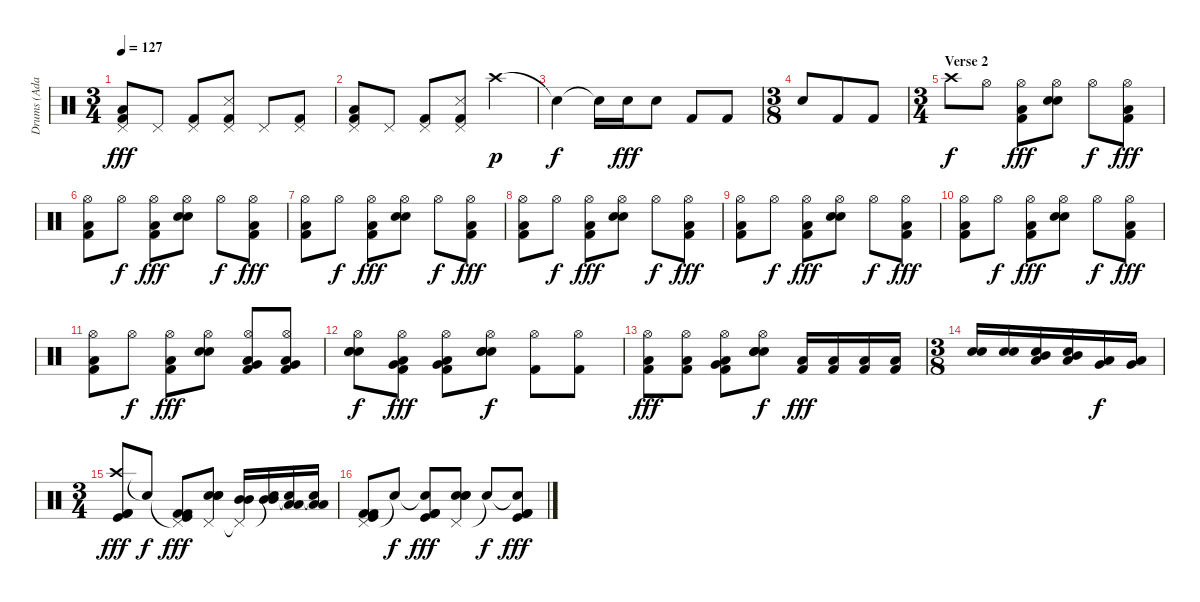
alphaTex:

\track ("Drums (Adam)" "Drums (Ada") {instrument percussion}
\staff {score}
\articulation defaults
\ts (3 4)
\tempo 127
\clef neutral
\ks c
("Pedal Hi-Hat (hit)" "Low Tom (hit)" "Kick (hit) 2").8{dy fff} "Pedal Hi-Hat (hit)".8 ("Pedal Hi-Hat (hit)" "Kick (hit) 2").8 ("Pedal Hi-Hat (hit)" "Snare (side stick) 3" "Kick (hit) 2").8 "Pedal Hi-Hat (hit)".8 ("Pedal Hi-Hat (hit)" "Kick (hit) 2").8 |
("Pedal Hi-Hat (hit)" "Low Tom (hit)" "Kick (hit) 2").8 "Pedal Hi-Hat (hit)".8 ("Pedal Hi-Hat (hit)" "Kick (hit) 2").8 ("Pedal Hi-Hat (hit)" "Snare (side stick) 3" "Kick (hit) 2").8 "Crash high (hit)".4{dy p} |
"Snare (hit)"{t}.4{dy f} "Snare (hit)"{t}.16 "Electric Snare (hit)".16{dy fff} "Electric Snare (hit)".8 "Kick (hit) 2".8 "Kick (hit) 2".8 |
\ts (3 8)
"Electric Snare (hit)".8 "Kick (hit) 2".8 "Kick (hit) 2".8 |
\ts (3 4)
\section ("" "Verse 2")
"Crash high (hit)".8{dy f} "Hi-Hat (open)".8 ("Hi-Hat (open)" "Low Tom (hit)" "Kick (hit) 2").8{dy fff} ("Hi-Hat (open)" "Snare (hit) 2" "Electric Snare (hit)").8 "Hi-Hat (open)".8{dy f} ("Hi-Hat (open)" "Low Tom (hit)" "Kick (hit) 2").8{dy fff} |
("Hi-Hat (open)" "Low Tom (hit)" "Kick (hit) 2").8 "Hi-Hat (open)".8{dy f} ("Hi-Hat (open)" "Low Tom (hit)" "Kick (hit) 2").8{dy fff} ("Hi-Hat (open)" "Snare (hit) 2" "Electric Snare (hit)").8 "Hi-Hat (open)".8{dy f} ("Hi-Hat (open)" "Low Tom (hit)" "Kick (hit) 2").8{dy fff} |
("Hi-Hat (open)" "Low Tom (hit)" "Kick (hit) 2").8 "Hi-Hat (open)".8{dy f} ("Hi-Hat (open)" "Low Tom (hit)" "Kick (hit) 2").8{dy fff} ("Hi-Hat (open)" "Snare (hit) 2" "Electric Snare (hit)").8 "Hi-Hat (open)".8{dy f} ("Hi-Hat (open)" "Low Tom (hit)" "Kick (hit) 2").8{dy fff} |
("Hi-Hat (open)" "Low Tom (hit)" "Kick (hit) 2").8 "Hi-Hat (open)".8{dy f} ("Hi-Hat (open)" "Low Tom (hit)" "Kick (hit) 2").8{dy fff} ("Hi-Hat (open)" "Snare (hit) 2" "Electric Snare (hit)").8 "Hi-Hat (open)".8{dy f} ("Hi-Hat (open)" "Low Tom (hit)" "Kick (hit) 2").8{dy fff} |
("Hi-Hat (open)" "Low Tom (hit)" "Kick (hit) 2").8 "Hi-Hat (open)".8{dy f} ("Hi-Hat (open)" "Low Tom (hit)" "Kick (hit) 2").8{dy fff} ("Hi-Hat (open)" "Snare (hit) 2" "Electric Snare (hit)").8 "Hi-Hat (open)".8{dy f} ("Hi-Hat (open)" "Low Tom (hit)" "Kick (hit) 2").8{dy fff} |
("Hi-Hat (open)" "Low Tom (hit)" "Kick (hit) 2").8 "Hi-Hat (open)".8{dy f} ("Hi-Hat (open)" "Low Tom (hit)" "Kick (hit) 2").8{dy fff} ("Hi-Hat (open)" "Snare (hit) 2" "Electric Snare (hit)").8 "Hi-Hat (open)".8{dy f} ("Hi-Hat (open)" "Low Tom (hit)" "Kick (hit) 2").8{dy fff} |
("Hi-Hat (open)" "Low Tom (hit)" "Kick (hit) 2").8 "Hi-Hat (open)".8{dy f} ("Hi-Hat (open)" "Low Tom (hit)" "Kick (hit) 2").8{dy fff} ("Hi-Hat (open)" "Snare (hit) 2" "Electric Snare (hit)").8 ("Hi-Hat (open)" "Very Low Tom (hit)" "Low Tom (hit)" "Kick (hit) 2").8 ("Hi-Hat (open)" "Very Low Tom (hit)" "Low Tom (hit)" "Kick (hit) 2").8 |
("Hi-Hat (open)" "Electric Snare (hit)" "Electric Snare (hit)" "Snare (hit) 2").8{dy f} ("Hi-Hat (open)" "Very Low Tom (hit)" "Low Tom (hit)" "Kick (hit) 2").8{dy fff} ("Hi-Hat (open)" "Very Low Tom (hit)" "Low Tom (hit)" "Kick (hit) 2").8 ("Hi-Hat (open)" "Electric Snare (hit)" "Electric Snare (hit)" "Snare (hit) 2").8{dy f} ("Hi-Hat (open)" "Kick (hit) 2").8 ("Hi-Hat (open)" "Kick (hit) 2").8 |
("Hi-Hat (open)" "Low Tom (hit)" "Kick (hit) 2").8{dy fff} ("Hi-Hat (open)" "Low Tom (hit)" "Kick (hit) 2").8 ("Hi-Hat (open)" "Very Low Tom (hit)" "Low Tom (hit)" "Kick (hit) 2").8 ("Hi-Hat (open)" "Electric Snare (hit)" "Electric Snare (hit)" "Snare (hit) 2").8{dy f} ("Low Tom (hit)" "Kick (hit) 2").16{dy fff} ("Low Tom (hit)" "Kick (hit) 2").16 ("Low Tom (hit)" "Kick (hit) 2").16 ("Low Tom (hit)" "Kick (hit) 2").16 |
\ts (3 8)
("Electric Snare (hit)" "Snare (hit) 2").16 ("Electric Snare (hit)" "Snare (hit) 2").16 ("Electric Snare (hit)" "Mid Tom (hit)" "Low Tom (hit)").16 ("Electric Snare (hit)" "Mid Tom (hit)" "Low Tom (hit)").16 ("Very Low Tom (hit)" "Low Tom (hit)").16{dy f} ("Very Low Tom (hit)" "Low Tom (hit)").16 |
\ts (3 4)
("Crash high (hit)" "Kick (hit)" "Kick (hit) 2" "Kick (hit) 2").8{dy fff} "Snare (hit)"{t}.8{dy f} ("Pedal Hi-Hat (hit)"{t} "Kick (hit)" "Kick (hit) 2" "Kick (hit) 2").8{dy fff} ("Pedal Hi-Hat (hit)" "Electric Snare (hit)" "Electric Snare (hit)" "Snare (hit) 2").8 ("Pedal Hi-Hat (hit)"{t} "Mid Tom (hit)" "Mid Tom (hit)").16 ("Snare (hit)"{t} "Mid Tom (hit)" "Mid Tom (hit)").16 ("Snare (hit)"{t} "Low Tom (hit)" "Low Tom (hit)").16 ("Snare (hit)"{t} "Low Tom (hit)" "Low Tom (hit)").16 |
("Pedal Hi-Hat (hit)" "Kick (hit)" "Kick (hit) 2" "Kick (hit) 2").8 "Snare (hit)"{t}.8{dy f} ("Snare (hit)"{t} "Kick (hit)" "Kick (hit) 2" "Kick (hit) 2").8{dy fff} ("Pedal Hi-Hat (hit)" "Electric Snare (hit)" "Electric Snare (hit)" "Snare (hit) 2").8 "Snare (hit)"{t}.8{dy f} ("Snare (hit)"{t} "Kick (hit)" "Kick (hit) 2" "Kick (hit) 2").8{dy fff}
